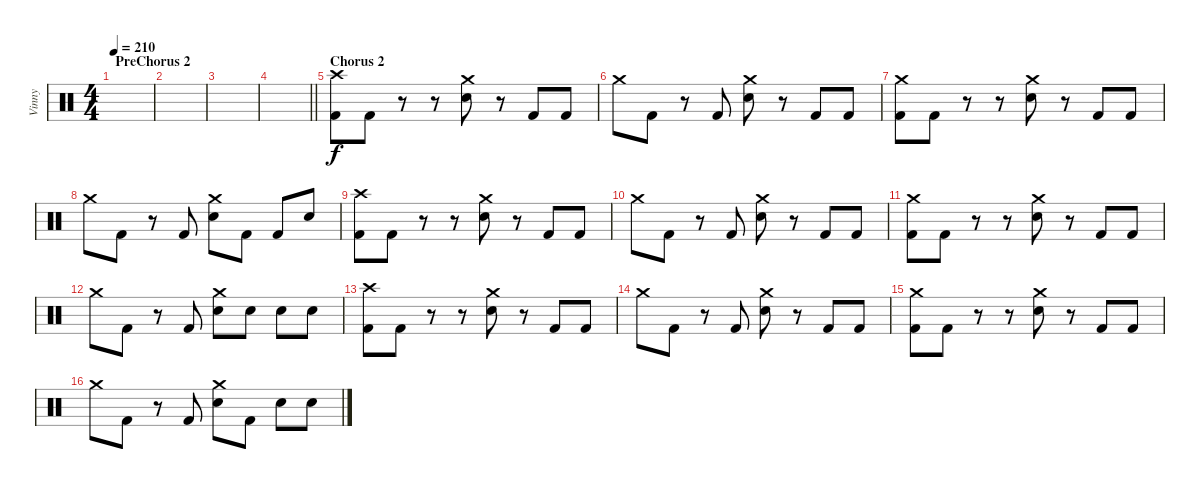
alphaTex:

\track ("Vinny" "Vinny") {instrument percussion}
\staff {score}
\articulation defaults
\ts (4 4)
\section ("" "PreChorus 2")
\tempo 210
\clef neutral
\ks c
|
|
|
\barLineRight lightlight
|
\section ("" "Chorus 2")
("Crash high (hit)" "Kick (hit) 2").8 "Kick (hit) 2".8 r.8 r.8 ("Crash medium (hit)" "Electric Snare (hit)").8 r.8 "Kick (hit) 2".8 "Kick (hit) 2".8 |
"Crash medium (hit)".8 "Kick (hit) 2".8 r.8 "Kick (hit) 2".8 ("Crash medium (hit)" "Electric Snare (hit)").8 r.8 "Kick (hit) 2".8 "Kick (hit) 2".8 |
("Crash medium (hit)" "Kick (hit) 2").8 "Kick (hit) 2".8 r.8 r.8 ("Crash medium (hit)" "Electric Snare (hit)").8 r.8 "Kick (hit) 2".8 "Kick (hit) 2".8 |
"Crash medium (hit)".8 "Kick (hit) 2".8 r.8 "Kick (hit) 2".8 ("Crash medium (hit)" "Electric Snare (hit)").8 "Kick (hit) 2".8 "Kick (hit) 2".8 "Electric Snare (hit)".8 |
("Crash high (hit)" "Kick (hit) 2").8 "Kick (hit) 2".8 r.8 r.8 ("Crash medium (hit)" "Electric Snare (hit)").8 r.8 "Kick (hit) 2".8 "Kick (hit) 2".8 |
"Crash medium (hit)".8 "Kick (hit) 2".8 r.8 "Kick (hit) 2".8 ("Crash medium (hit)" "Electric Snare (hit)").8 r.8 "Kick (hit) 2".8 "Kick (hit) 2".8 |
("Crash medium (hit)" "Kick (hit) 2").8 "Kick (hit) 2".8 r.8 r.8 ("Crash medium (hit)" "Electric Snare (hit)").8 r.8 "Kick (hit) 2".8 "Kick (hit) 2".8 |
"Crash medium (hit)".8 "Kick (hit) 2".8 r.8 "Kick (hit) 2".8 ("Crash medium (hit)" "Electric Snare (hit)").8 "Electric Snare (hit)".8 "Electric Snare (hit)".8 "Electric Snare (hit)".8 |
("Crash high (hit)" "Kick (hit) 2").8 "Kick (hit) 2".8 r.8 r.8 ("Crash medium (hit)" "Electric Snare (hit)").8 r.8 "Kick (hit) 2".8 "Kick (hit) 2".8 |
"Crash medium (hit)".8 "Kick (hit) 2".8 r.8 "Kick (hit) 2".8 ("Crash medium (hit)" "Electric Snare (hit)").8 r.8 "Kick (hit) 2".8 "Kick (hit) 2".8 |
("Crash medium (hit)" "Kick (hit) 2").8 "Kick (hit) 2".8 r.8 r.8 ("Crash medium (hit)" "Electric Snare (hit)").8 r.8 "Kick (hit) 2".8 "Kick (hit) 2".8 |
"Crash medium (hit)".8 "Kick (hit) 2".8 r.8 "Kick (hit) 2".8 ("Crash medium (hit)" "Electric Snare (hit)").8 "Kick (hit) 2".8 "Electric Snare (hit)".8 "Electric Snare (hit)".8
